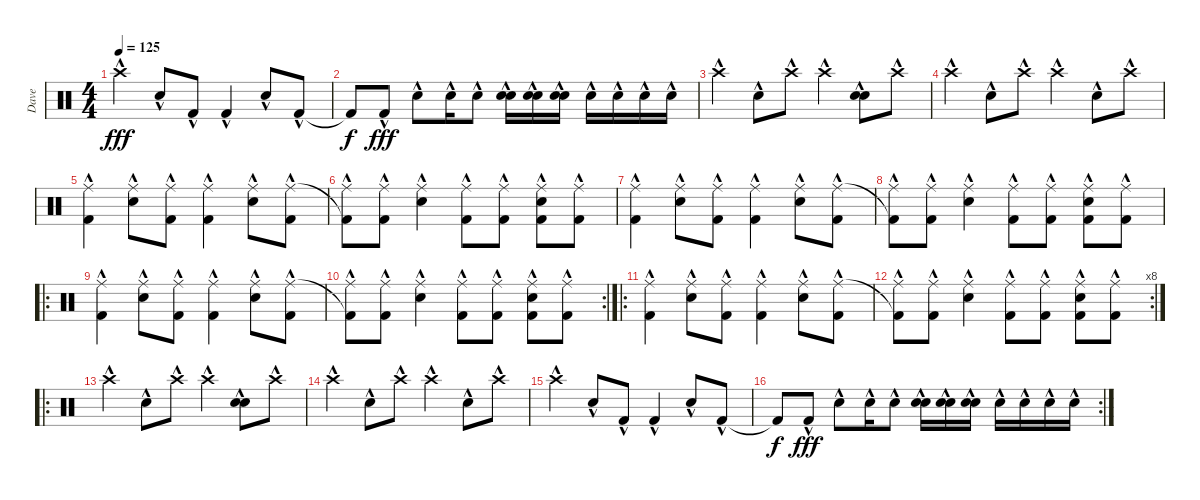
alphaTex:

\track ("Dave" "Dave") {instrument percussion}
\staff {score}
\articulation defaults
\ts (4 4)
\tempo 125
\clef neutral
\ks c "Crash high (hit)"{hac}.4{dy fff} "Electric Snare (hit)"{hac}.8 "Kick (hit) 2"{hac}.8 "Kick (hit) 2"{hac}.4 "Electric Snare (hit)"{hac}.8 "Kick (hit) 2"{hac}.8
|
"Kick (hit) 2"{t}.8{dy f} "Kick (hit) 2"{hac}.8{dy fff} "Electric Snare (hit)"{hac}.8 "Electric Snare (hit)"{hac}.16 "Electric Snare (hit)"{hac}.8 ("Electric Snare (hit)"{hac} "Electric Snare (hit)"{hac}).16 ("Electric Snare (hit)"{hac} "Electric Snare (hit)"{hac}).16 ("Electric Snare (hit)"{hac} "Electric Snare (hit)"{hac}).16 "Electric Snare (hit)"{hac}.16 "Electric Snare (hit)"{hac}.16 "Electric Snare (hit)"{hac}.16 "Electric Snare (hit)"{hac}.16 |
"Crash high (hit)"{hac}.4 "Electric Snare (hit)"{hac}.8 "Crash high (hit)"{hac}.8 "Crash high (hit)"{hac}.4 ("Electric Snare (hit)"{hac} "Electric Snare (hit)"{hac}).8 "Crash high (hit)"{hac}.8 |
"Crash high (hit)"{hac}.4 "Electric Snare (hit)"{hac}.8 "Crash high (hit)"{hac}.8 "Crash high (hit)"{hac}.4 "Electric Snare (hit)"{hac}.8 "Crash high (hit)"{hac}.8 |
("Kick (hit) 2"{hac} "Ride (middle)"{hac}).4 ("Electric Snare (hit)"{hac} "Ride (middle)"{hac}).8 ("Kick (hit) 2"{hac} "Ride (middle)"{hac}).8 ("Kick (hit) 2"{hac} "Ride (middle)"{hac}).4 ("Electric Snare (hit)"{hac} "Ride (middle)"{hac}).8 ("Kick (hit) 2"{hac} "Ride (middle)"{hac}).8 |
("Ride (middle)"{hac} "Kick (hit) 2"{t}).8 ("Kick (hit) 2"{hac} "Ride (middle)"{hac}).8 ("Electric Snare (hit)"{hac} "Ride (middle)"{hac}).4 ("Ride (middle)"{hac} "Kick (hit) 2"{hac}).8 ("Kick (hit) 2"{hac} "Ride (middle)"{hac}).8 ("Kick (hit) 2"{hac} "Electric Snare (hit)"{hac} "Ride (middle)"{hac}).8 ("Kick (hit) 2"{hac} "Ride (middle)"{hac}).8 |
("Kick (hit) 2"{hac} "Ride (middle)"{hac}).4 ("Electric Snare (hit)"{hac} "Ride (middle)"{hac}).8 ("Kick (hit) 2"{hac} "Ride (middle)"{hac}).8 ("Kick (hit) 2"{hac} "Ride (middle)"{hac}).4 ("Electric Snare (hit)"{hac} "Ride (middle)"{hac}).8 ("Kick (hit) 2"{hac} "Ride (middle)"{hac}).8 |
("Ride (middle)"{hac} "Kick (hit) 2"{t}).8 ("Kick (hit) 2"{hac} "Ride (middle)"{hac}).8 ("Electric Snare (hit)"{hac} "Ride (middle)"{hac}).4 ("Ride (middle)"{hac} "Kick (hit) 2"{hac}).8 ("Kick (hit) 2"{hac} "Ride (middle)"{hac}).8 ("Kick (hit) 2"{hac} "Electric Snare (hit)"{hac} "Ride (middle)"{hac}).8 ("Kick (hit) 2"{hac} "Ride (middle)"{hac}).8 |
\ro
("Kick (hit) 2"{hac} "Ride (middle)"{hac}).4 ("Electric Snare (hit)"{hac} "Ride (middle)"{hac}).8 ("Kick (hit) 2"{hac} "Ride (middle)"{hac}).8 ("Kick (hit) 2"{hac} "Ride (middle)"{hac}).4 ("Electric Snare (hit)"{hac} "Ride (middle)"{hac}).8 ("Kick (hit) 2"{hac} "Ride (middle)"{hac}).8 |
\rc 2
("Ride (middle)"{hac} "Kick (hit) 2"{t}).8 ("Kick (hit) 2"{hac} "Ride (middle)"{hac}).8 ("Electric Snare (hit)"{hac} "Ride (middle)"{hac}).4 ("Ride (middle)"{hac} "Kick (hit) 2"{hac}).8 ("Kick (hit) 2"{hac} "Ride (middle)"{hac}).8 ("Kick (hit) 2"{hac} "Electric Snare (hit)"{hac} "Ride (middle)"{hac}).8 ("Kick (hit) 2"{hac} "Ride (middle)"{hac}).8 |
\ro
("Kick (hit) 2"{hac} "Ride (middle)"{hac}).4 ("Electric Snare (hit)"{hac} "Ride (middle)"{hac}).8 ("Kick (hit) 2"{hac} "Ride (middle)"{hac}).8 ("Kick (hit) 2"{hac} "Ride (middle)"{hac}).4 ("Electric Snare (hit)"{hac} "Ride (middle)"{hac}).8 ("Kick (hit) 2"{hac} "Ride (middle)"{hac}).8 |
\rc 8
("Ride (middle)"{hac} "Kick (hit) 2"{t}).8 ("Kick (hit) 2"{hac} "Ride (middle)"{hac}).8 ("Electric Snare (hit)"{hac} "Ride (middle)"{hac}).4 ("Ride (middle)"{hac} "Kick (hit) 2"{hac}).8 ("Kick (hit) 2"{hac} "Ride (middle)"{hac}).8 ("Kick (hit) 2"{hac} "Electric Snare (hit)"{hac} "Ride (middle)"{hac}).8 ("Kick (hit) 2"{hac} "Ride (middle)"{hac}).8 |
\ro "Crash high (hit)"{hac}.4 "Electric Snare (hit)"{hac}.8 "Crash high (hit)"{hac}.8 "Crash high (hit)"{hac}.4
("Electric Snare (hit)"{hac} "Electric Snare (hit)"{hac}).8 "Crash high (hit)"{hac}.8 |
"Crash high (hit)"{hac}.4 "Electric Snare (hit)"{hac}.8 "Crash high (hit)"{hac}.8 "Crash high (hit)"{hac}.4 "Electric Snare (hit)"{hac}.8 "Crash high (hit)"{hac}.8 |
"Crash high (hit)"{hac}.4 "Electric Snare (hit)"{hac}.8 "Kick (hit) 2"{hac}.8 "Kick (hit) 2"{hac}.4 "Electric Snare (hit)"{hac}.8 "Kick (hit) 2"{hac}.8 |
\rc 2 "Kick (hit) 2"{t}.8{dy f} "Kick (hit) 2"{hac}.8{dy fff} "Electric Snare (hit)"{hac}.8 "Electric Snare (hit)"{hac}.16 "Electric Snare (hit)"{hac}.8
("Electric Snare (hit)"{hac} "Electric Snare (hit)"{hac}).16 ("Electric Snare (hit)"{hac} "Electric Snare (hit)"{hac}).16 ("Electric Snare (hit)"{hac} "Electric Snare (hit)"{hac}).16 "Electric Snare (hit)"{hac}.16 "Electric Snare (hit)"{hac}.16 "Electric Snare (hit)"{hac}.16 "Electric Snare (hit)"{hac}.16
